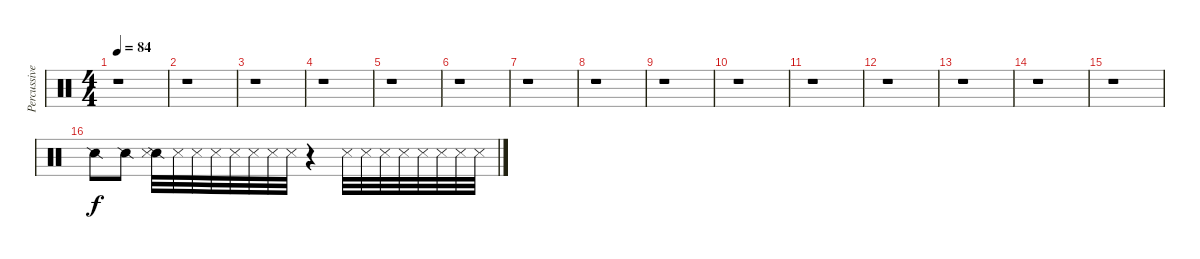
\track ("Percussive Over-Dubs" "Percussive") {instrument percussion}
\staff {score}
\articulation defaults
\ts (4 4)
\tempo 84
\clef neutral
\ks c
r.1{dy f} |
r.1 |
r.1 |
r.1 |
r.1 |
r.1 |
r.1 |
r.1 |
r.1 |
r.1 |
r.1 |
r.1 |
r.1 |
r.1 |
r.1 |
"Snare (side stick) 2".8 "Snare (side stick) 2".8 ("Snare (side stick) 2" "Metronome (hit)").32 "Metronome (hit)".32 "Metronome (hit)".32 "Metronome (hit)".32 "Metronome (hit)".32 "Metronome (hit)".32 "Metronome (hit)".32 "Metronome (hit)".32 r.4 "Metronome (hit)".32 "Metronome (hit)".32 "Metronome (hit)".32 "Metronome (hit)".32 "Metronome (hit)".32 "Metronome (hit)".32 "Metronome (hit)".32 "Metronome (hit)".32
